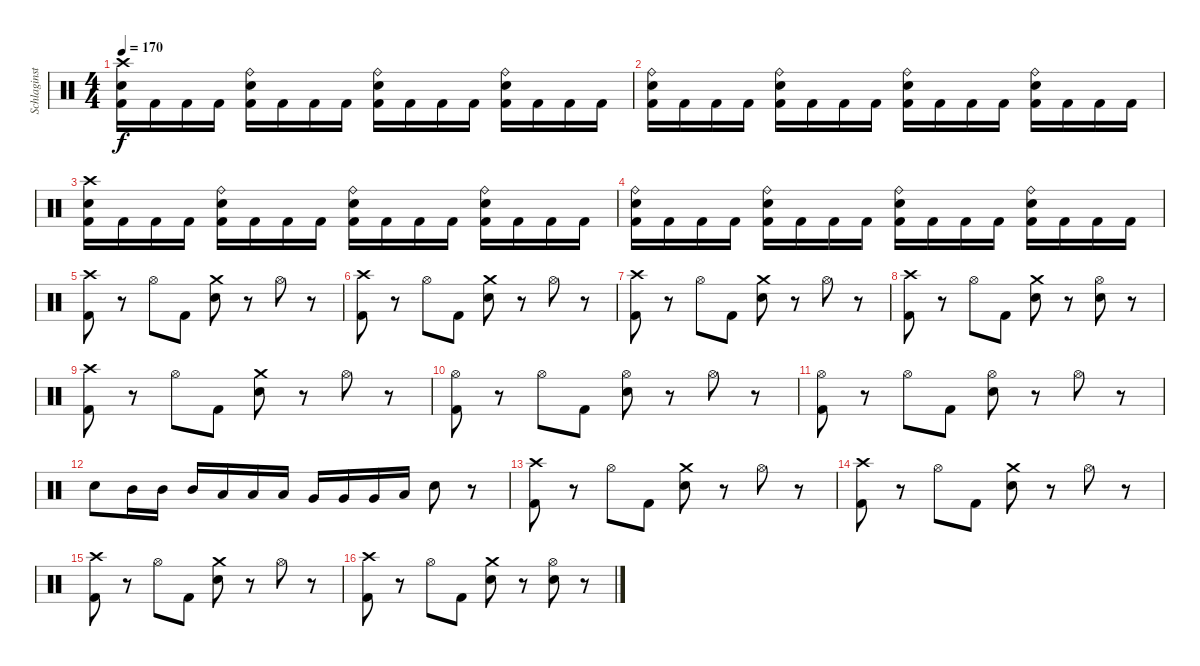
\track ("Schlaginstrumente - Auswahl" "Schlaginst") {instrument percussion}
\staff {score}
\articulation defaults
\ts (4 4)
\tempo 170
\clef neutral
\ks c
("Crash high (hit)" "Snare (hit) 2" "Kick (hit) 2").16{dy f} "Kick (hit) 2".16 "Kick (hit) 2".16 "Kick (hit) 2".16 ("Ride (bell)" "Snare (hit) 2" "Kick (hit) 2").16 "Kick (hit) 2".16 "Kick (hit) 2".16 "Kick (hit) 2".16 ("Ride (bell)" "Snare (hit) 2" "Kick (hit) 2").16 "Kick (hit) 2".16 "Kick (hit) 2".16 "Kick (hit) 2".16 ("Ride (bell)" "Snare (hit) 2" "Kick (hit) 2").16 "Kick (hit) 2".16 "Kick (hit) 2".16 "Kick (hit) 2".16 |
("Ride (bell)" "Snare (hit) 2" "Kick (hit) 2").16 "Kick (hit) 2".16 "Kick (hit) 2".16 "Kick (hit) 2".16 ("Ride (bell)" "Snare (hit) 2" "Kick (hit) 2").16 "Kick (hit) 2".16 "Kick (hit) 2".16 "Kick (hit) 2".16 ("Ride (bell)" "Snare (hit) 2" "Kick (hit) 2").16 "Kick (hit) 2".16 "Kick (hit) 2".16 "Kick (hit) 2".16 ("Ride (bell)" "Snare (hit) 2" "Kick (hit) 2").16 "Kick (hit) 2".16 "Kick (hit) 2".16 "Kick (hit) 2".16 |
("Crash high (hit)" "Snare (hit) 2" "Kick (hit) 2").16 "Kick (hit) 2".16 "Kick (hit) 2".16 "Kick (hit) 2".16 ("Ride (bell)" "Snare (hit) 2" "Kick (hit) 2").16 "Kick (hit) 2".16 "Kick (hit) 2".16 "Kick (hit) 2".16 ("Ride (bell)" "Snare (hit) 2" "Kick (hit) 2").16 "Kick (hit) 2".16 "Kick (hit) 2".16 "Kick (hit) 2".16 ("Ride (bell)" "Snare (hit) 2" "Kick (hit) 2").16 "Kick (hit) 2".16 "Kick (hit) 2".16 "Kick (hit) 2".16 |
("Ride (bell)" "Snare (hit) 2" "Kick (hit) 2").16 "Kick (hit) 2".16 "Kick (hit) 2".16 "Kick (hit) 2".16 ("Ride (bell)" "Snare (hit) 2" "Kick (hit) 2").16 "Kick (hit) 2".16 "Kick (hit) 2".16 "Kick (hit) 2".16 ("Ride (bell)" "Snare (hit) 2" "Kick (hit) 2").16 "Kick (hit) 2".16 "Kick (hit) 2".16 "Kick (hit) 2".16 ("Ride (bell)" "Snare (hit) 2" "Kick (hit) 2").16 "Kick (hit) 2".16 "Kick (hit) 2".16 "Kick (hit) 2".16 |
("Crash high (hit)" "Kick (hit) 2").8 r.8 "Hi-Hat (open)".8 "Kick (hit) 2".8 ("Crash medium (hit)" "Snare (hit) 2").8 r.8 "Hi-Hat (open)".8 r.8 |
("Crash high (hit)" "Kick (hit) 2").8 r.8 "Hi-Hat (open)".8 "Kick (hit) 2".8 ("Crash medium (hit)" "Snare (hit) 2").8 r.8 "Hi-Hat (open)".8 r.8 |
("Crash high (hit)" "Kick (hit) 2").8 r.8 "Hi-Hat (open)".8 "Kick (hit) 2".8 ("Crash medium (hit)" "Snare (hit) 2").8 r.8 "Hi-Hat (open)".8 r.8 |
("Crash high (hit)" "Kick (hit) 2").8 r.8 "Hi-Hat (open)".8 "Kick (hit) 2".8 ("Crash medium (hit)" "Snare (hit) 2").8 r.8 ("Hi-Hat (open)" "Snare (hit) 2").8 r.8 |
("Crash high (hit)" "Kick (hit) 2").8 r.8 "Hi-Hat (open)".8 "Kick (hit) 2".8 ("Crash medium (hit)" "Snare (hit) 2").8 r.8 "Hi-Hat (open)".8 r.8 |
("Hi-Hat (open)" "Kick (hit) 2").8 r.8 "Hi-Hat (open)".8 "Kick (hit) 2".8 ("Hi-Hat (open)" "Snare (hit) 2").8 r.8 "Hi-Hat (open)".8 r.8 |
("Hi-Hat (open)" "Kick (hit) 2").8 r.8 "Hi-Hat (open)".8 "Kick (hit) 2".8 ("Hi-Hat (open)" "Snare (hit) 2").8 r.8 "Hi-Hat (open)".8 r.8 |
"Snare (hit) 2".8 "Mid Tom (hit)".16 "Mid Tom (hit)".16 "Mid Tom (hit)".16 "Low Tom (hit)".16 "Low Tom (hit)".16 "Low Tom (hit)".16 "Very Low Tom (hit)".16 "Very Low Tom (hit)".16 "Very Low Tom (hit)".16 "Low Floor Tom (hit)".16 "Snare (hit) 2".8 r.8 |
("Crash high (hit)" "Kick (hit) 2").8 r.8 "Hi-Hat (open)".8 "Kick (hit) 2".8 ("Crash medium (hit)" "Snare (hit) 2").8 r.8 "Hi-Hat (open)".8 r.8 |
("Crash high (hit)" "Kick (hit) 2").8 r.8 "Hi-Hat (open)".8 "Kick (hit) 2".8 ("Crash medium (hit)" "Snare (hit) 2").8 r.8 "Hi-Hat (open)".8 r.8 |
("Crash high (hit)" "Kick (hit) 2").8 r.8 "Hi-Hat (open)".8 "Kick (hit) 2".8 ("Crash medium (hit)" "Snare (hit) 2").8 r.8 "Hi-Hat (open)".8 r.8 |
("Crash high (hit)" "Kick (hit) 2").8 r.8 "Hi-Hat (open)".8 "Kick (hit) 2".8 ("Crash medium (hit)" "Snare (hit) 2").8 r.8 ("Hi-Hat (open)" "Snare (hit) 2").8 r.8
